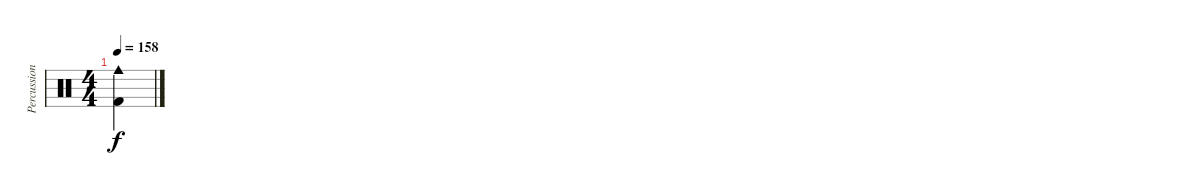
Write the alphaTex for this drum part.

\track ("Percussion" "Percussion") {instrument percussion}
\staff {score}
\articulation defaults
\ts (4 4)
\tempo 158
\clef neutral
\ks c
("Cowbell medium (hit)" "Kick (hit) 2").4{dy f}
